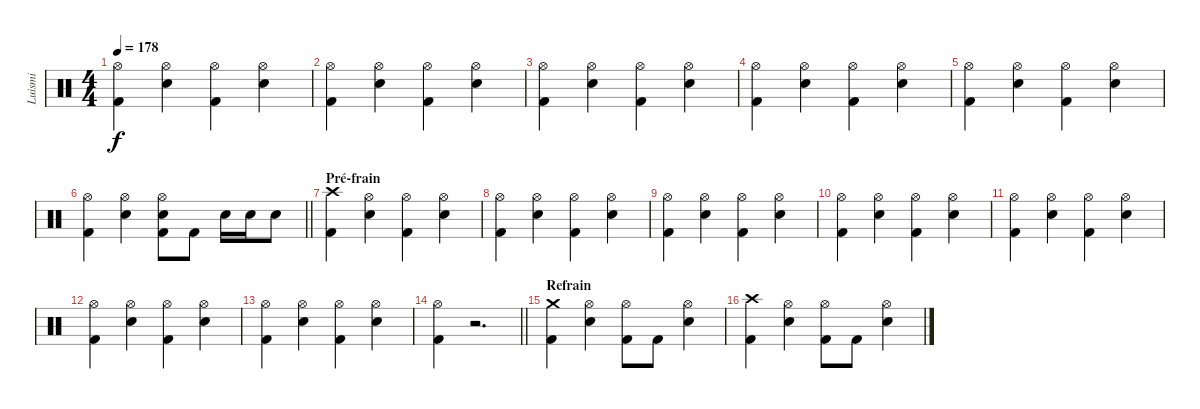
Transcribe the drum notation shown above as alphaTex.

\track ("Luismi" "Luismi") {instrument percussion}
\staff {score}
\articulation defaults
\ts (4 4)
\tempo 178
\clef neutral
\ks c
("Hi-Hat (open)" "Kick (hit) 2").4{dy f} ("Hi-Hat (open)" "Snare (hit) 2").4 ("Hi-Hat (open)" "Kick (hit) 2").4 ("Hi-Hat (open)" "Snare (hit) 2").4 |
("Hi-Hat (open)" "Kick (hit) 2").4 ("Hi-Hat (open)" "Snare (hit) 2").4 ("Hi-Hat (open)" "Kick (hit) 2").4 ("Hi-Hat (open)" "Snare (hit) 2").4 |
("Hi-Hat (open)" "Kick (hit) 2").4 ("Hi-Hat (open)" "Snare (hit) 2").4 ("Hi-Hat (open)" "Kick (hit) 2").4 ("Hi-Hat (open)" "Snare (hit) 2").4 |
("Hi-Hat (open)" "Kick (hit) 2").4 ("Hi-Hat (open)" "Snare (hit) 2").4 ("Hi-Hat (open)" "Kick (hit) 2").4 ("Hi-Hat (open)" "Snare (hit) 2").4 |
("Hi-Hat (open)" "Kick (hit) 2").4 ("Hi-Hat (open)" "Snare (hit) 2").4 ("Hi-Hat (open)" "Kick (hit) 2").4 ("Hi-Hat (open)" "Snare (hit) 2").4 |
\barLineRight lightlight
("Hi-Hat (open)" "Kick (hit) 2").4 ("Hi-Hat (open)" "Snare (hit) 2").4 ("Hi-Hat (open)" "Snare (hit) 2" "Kick (hit) 2").8 "Kick (hit) 2".8 "Snare (hit) 2".16 "Snare (hit) 2".16 "Snare (hit) 2".8 |
\section ("" "Pré-frain")
("Crash high (hit)" "Kick (hit) 2").4 ("Hi-Hat (open)" "Snare (hit) 2").4 ("Hi-Hat (open)" "Kick (hit) 2").4 ("Hi-Hat (open)" "Snare (hit) 2").4 |
("Hi-Hat (open)" "Kick (hit) 2").4 ("Hi-Hat (open)" "Snare (hit) 2").4 ("Hi-Hat (open)" "Kick (hit) 2").4 ("Hi-Hat (open)" "Snare (hit) 2").4 |
("Hi-Hat (open)" "Kick (hit) 2").4 ("Hi-Hat (open)" "Snare (hit) 2").4 ("Hi-Hat (open)" "Kick (hit) 2").4 ("Hi-Hat (open)" "Snare (hit) 2").4 |
("Hi-Hat (open)" "Kick (hit) 2").4 ("Hi-Hat (open)" "Snare (hit) 2").4 ("Hi-Hat (open)" "Kick (hit) 2").4 ("Hi-Hat (open)" "Snare (hit) 2").4 |
("Hi-Hat (open)" "Kick (hit) 2").4 ("Hi-Hat (open)" "Snare (hit) 2").4 ("Hi-Hat (open)" "Kick (hit) 2").4 ("Hi-Hat (open)" "Snare (hit) 2").4 |
("Hi-Hat (open)" "Kick (hit) 2").4 ("Hi-Hat (open)" "Snare (hit) 2").4 ("Hi-Hat (open)" "Kick (hit) 2").4 ("Hi-Hat (open)" "Snare (hit) 2").4 |
("Hi-Hat (open)" "Kick (hit) 2").4 ("Hi-Hat (open)" "Snare (hit) 2").4 ("Hi-Hat (open)" "Kick (hit) 2").4 ("Hi-Hat (open)" "Snare (hit) 2").4 |
\barLineRight lightlight
("Hi-Hat (open)" "Kick (hit) 2").4 r.2{d} |
\section ("" "Refrain")
("Crash medium (hit)" "Kick (hit) 2").4 ("Hi-Hat (open)" "Snare (hit) 2").4 ("Hi-Hat (open)" "Kick (hit) 2").8 "Kick (hit) 2".8 ("Hi-Hat (open)" "Snare (hit) 2").4 |
("Crash high (hit)" "Kick (hit) 2").4 ("Hi-Hat (open)" "Snare (hit) 2").4 ("Hi-Hat (open)" "Kick (hit) 2").8 "Kick (hit) 2".8 ("Hi-Hat (open)" "Snare (hit) 2").4
